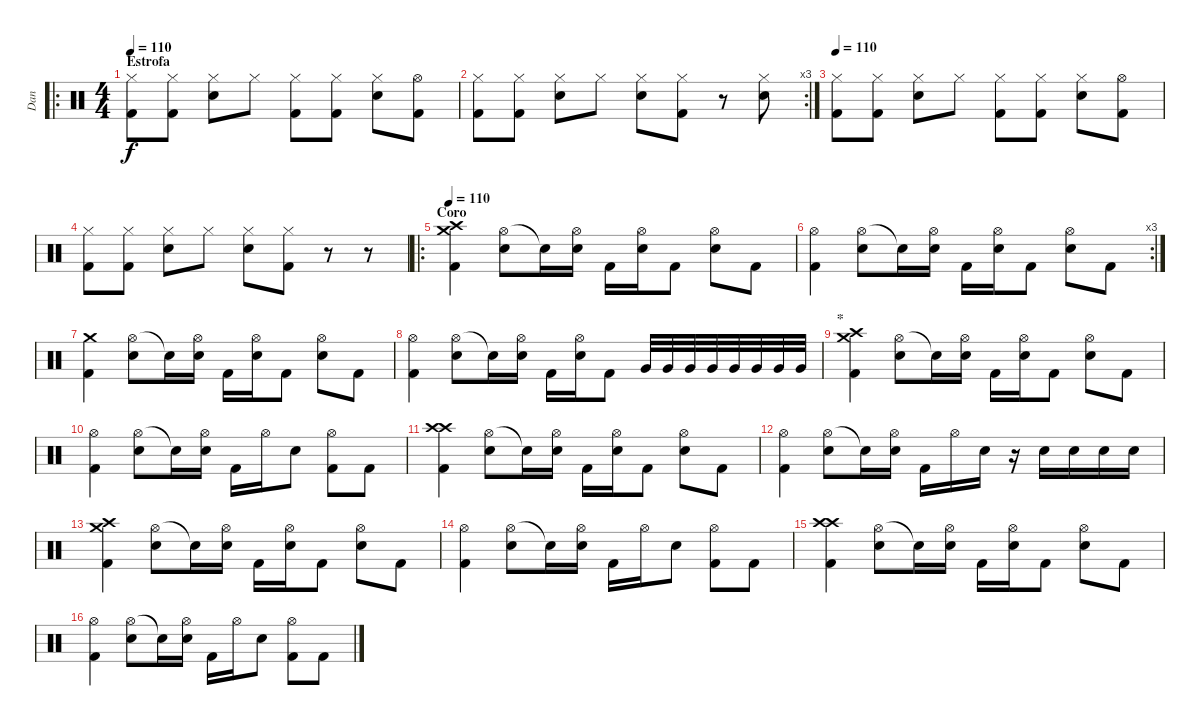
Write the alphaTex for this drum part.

\track ("Dan" "Dan") {instrument percussion}
\staff {score}
\articulation defaults
\ro
\ts (4 4)
\section ("" "Estrofa")
\tempo 110
\clef neutral
\ks c
("Hi-Hat (closed)" "Kick (hit) 2").8{dy f} ("Hi-Hat (closed)" "Kick (hit) 2").8 ("Hi-Hat (closed)" "Snare (hit) 2").8 "Hi-Hat (closed)".8 ("Hi-Hat (closed)" "Kick (hit) 2").8 ("Hi-Hat (closed)" "Kick (hit) 2").8 ("Hi-Hat (closed)" "Snare (hit) 2").8 ("Hi-Hat (open)" "Kick (hit) 2").8 |
\rc 3
("Hi-Hat (closed)" "Kick (hit) 2").8 ("Hi-Hat (closed)" "Kick (hit) 2").8 ("Hi-Hat (closed)" "Snare (hit) 2").8 "Hi-Hat (closed)".8 ("Hi-Hat (closed)" "Snare (hit) 2").8 ("Hi-Hat (closed)" "Kick (hit) 2").8 r.8 ("Hi-Hat (closed)" "Snare (hit) 2").8 |
\tempo 110
("Hi-Hat (closed)" "Kick (hit) 2").8 ("Hi-Hat (closed)" "Kick (hit) 2").8 ("Hi-Hat (closed)" "Snare (hit) 2").8 "Hi-Hat (closed)".8 ("Hi-Hat (closed)" "Kick (hit) 2").8 ("Hi-Hat (closed)" "Kick (hit) 2").8 ("Hi-Hat (closed)" "Snare (hit) 2").8 ("Hi-Hat (open)" "Kick (hit) 2").8 |
("Hi-Hat (closed)" "Kick (hit) 2").8 ("Hi-Hat (closed)" "Kick (hit) 2").8 ("Hi-Hat (closed)" "Snare (hit) 2").8 "Hi-Hat (closed)".8 ("Hi-Hat (closed)" "Snare (hit) 2").8 ("Hi-Hat (closed)" "Kick (hit) 2").8 r.8 r.8 |
\ro
\section ("" "Coro")
\tempo 110
("Crash medium (hit)" "Crash high (hit)" "Kick (hit) 2").4 ("Hi-Hat (open)" "Snare (hit) 2").8 "Snare (hit) 2"{t}.16 ("Hi-Hat (open)" "Snare (hit) 2").16 "Kick (hit) 2".16 ("Hi-Hat (open)" "Snare (hit) 2").16 "Kick (hit) 2".8 ("Hi-Hat (open)" "Snare (hit) 2").8 "Kick (hit) 2".8 |
\rc 3
("Hi-Hat (open)" "Kick (hit) 2").4 ("Hi-Hat (open)" "Snare (hit) 2").8 "Snare (hit) 2"{t}.16 ("Hi-Hat (open)" "Snare (hit) 2").16 "Kick (hit) 2".16 ("Hi-Hat (open)" "Snare (hit) 2").16 "Kick (hit) 2".8 ("Hi-Hat (open)" "Snare (hit) 2").8 "Kick (hit) 2".8 |
("Crash medium (hit)" "Kick (hit) 2").4 ("Hi-Hat (open)" "Snare (hit) 2").8 "Snare (hit) 2"{t}.16 ("Hi-Hat (open)" "Snare (hit) 2").16 "Kick (hit) 2".16 ("Hi-Hat (open)" "Snare (hit) 2").16 "Kick (hit) 2".8 ("Hi-Hat (open)" "Snare (hit) 2").8 "Kick (hit) 2".8 |
("Hi-Hat (open)" "Kick (hit) 2").4 ("Hi-Hat (open)" "Snare (hit) 2").8 "Snare (hit) 2"{t}.16 ("Hi-Hat (open)" "Snare (hit) 2").16 "Kick (hit) 2".16 ("Hi-Hat (open)" "Snare (hit) 2").16 "Kick (hit) 2".8 "Very Low Tom (hit)".32 "Very Low Tom (hit)".32 "Very Low Tom (hit)".32 "Very Low Tom (hit)".32 "Very Low Tom (hit)".32 "Very Low Tom (hit)".32 "Very Low Tom (hit)".32 "Very Low Tom (hit)".32 |
\section ("" "*")
("Crash medium (hit)" "Crash high (hit)" "Kick (hit) 2").4 ("Hi-Hat (open)" "Snare (hit) 2").8 "Snare (hit) 2"{t}.16 ("Hi-Hat (open)" "Snare (hit) 2").16 "Kick (hit) 2".16 ("Hi-Hat (open)" "Snare (hit) 2").16 "Kick (hit) 2".8 ("Hi-Hat (open)" "Snare (hit) 2").8 "Kick (hit) 2".8 |
("Hi-Hat (open)" "Kick (hit) 2").4 ("Hi-Hat (open)" "Snare (hit) 2").8 "Snare (hit) 2"{t}.16 ("Hi-Hat (open)" "Snare (hit) 2").16 "Kick (hit) 2".16 "Hi-Hat (open)".16 "Snare (hit) 2".8 ("Hi-Hat (open)" "Kick (hit) 2").8 "Kick (hit) 2".8 |
("Crash high (hit)" "Crash high (hit)" "Kick (hit) 2").4 ("Hi-Hat (open)" "Snare (hit) 2").8 "Snare (hit) 2"{t}.16 ("Hi-Hat (open)" "Snare (hit) 2").16 "Kick (hit) 2".16 ("Hi-Hat (open)" "Snare (hit) 2").16 "Kick (hit) 2".8 ("Hi-Hat (open)" "Snare (hit) 2").8 "Kick (hit) 2".8 |
("Hi-Hat (open)" "Kick (hit) 2").4 ("Hi-Hat (open)" "Snare (hit) 2").8 "Snare (hit) 2"{t}.16 ("Hi-Hat (open)" "Snare (hit) 2").16 "Kick (hit) 2".16 "Hi-Hat (open)".16 "Snare (hit) 2".16 r.16 "Snare (hit) 2".16 "Snare (hit) 2".16 "Snare (hit) 2".16 "Snare (hit) 2".16 |
("Crash medium (hit)" "Crash high (hit)" "Kick (hit) 2").4 ("Hi-Hat (open)" "Snare (hit) 2").8 "Snare (hit) 2"{t}.16 ("Hi-Hat (open)" "Snare (hit) 2").16 "Kick (hit) 2".16 ("Hi-Hat (open)" "Snare (hit) 2").16 "Kick (hit) 2".8 ("Hi-Hat (open)" "Snare (hit) 2").8 "Kick (hit) 2".8 |
("Hi-Hat (open)" "Kick (hit) 2").4 ("Hi-Hat (open)" "Snare (hit) 2").8 "Snare (hit) 2"{t}.16 ("Hi-Hat (open)" "Snare (hit) 2").16 "Kick (hit) 2".16 "Hi-Hat (open)".16 "Snare (hit) 2".8 ("Hi-Hat (open)" "Kick (hit) 2").8 "Kick (hit) 2".8 |
("Crash high (hit)" "Crash high (hit)" "Kick (hit) 2").4 ("Hi-Hat (open)" "Snare (hit) 2").8 "Snare (hit) 2"{t}.16 ("Hi-Hat (open)" "Snare (hit) 2").16 "Kick (hit) 2".16 ("Hi-Hat (open)" "Snare (hit) 2").16 "Kick (hit) 2".8 ("Hi-Hat (open)" "Snare (hit) 2").8 "Kick (hit) 2".8 |
("Hi-Hat (open)" "Kick (hit) 2").4 ("Hi-Hat (open)" "Snare (hit) 2").8 "Snare (hit) 2"{t}.16 ("Hi-Hat (open)" "Snare (hit) 2").16 "Kick (hit) 2".16 "Hi-Hat (open)".16 "Snare (hit) 2".8 ("Hi-Hat (open)" "Kick (hit) 2").8 "Kick (hit) 2".8
